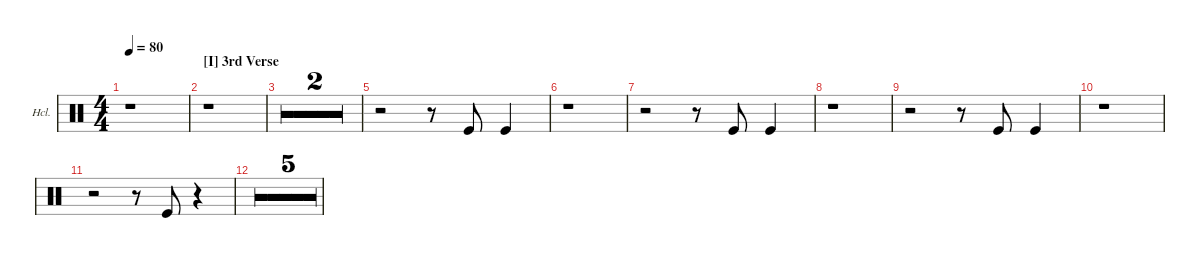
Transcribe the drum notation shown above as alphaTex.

\defaultSystemsLayout 4
\hideDynamics
\bracketExtendMode groupsimilarinstruments
\firstSystemTrackNameOrientation horizontal
\otherSystemsTrackNameOrientation horizontal
\track ("Hand Clap" "Hcl.") {multiBarRest instrument percussion}
\staff {score}
\articulation defaults
\ts (4 4)
\tempo 80
\clef neutral
\ks c
r.1{dy mp} |
\section ("I" "3rd Verse")
r.1 |
r.1 |
r.1 |
r.2 r.8 "Kick (hit)".8 "Kick (hit)".4 |
r.1 |
r.2 r.8 "Kick (hit)".8 "Kick (hit)".4 |
r.1 |
r.2 r.8 "Kick (hit)".8 "Kick (hit)".4 |
r.1 |
r.2 r.8 "Kick (hit)".8 r.4 |
r.1 |
r.1 |
r.1 |
r.1 |
r.1
